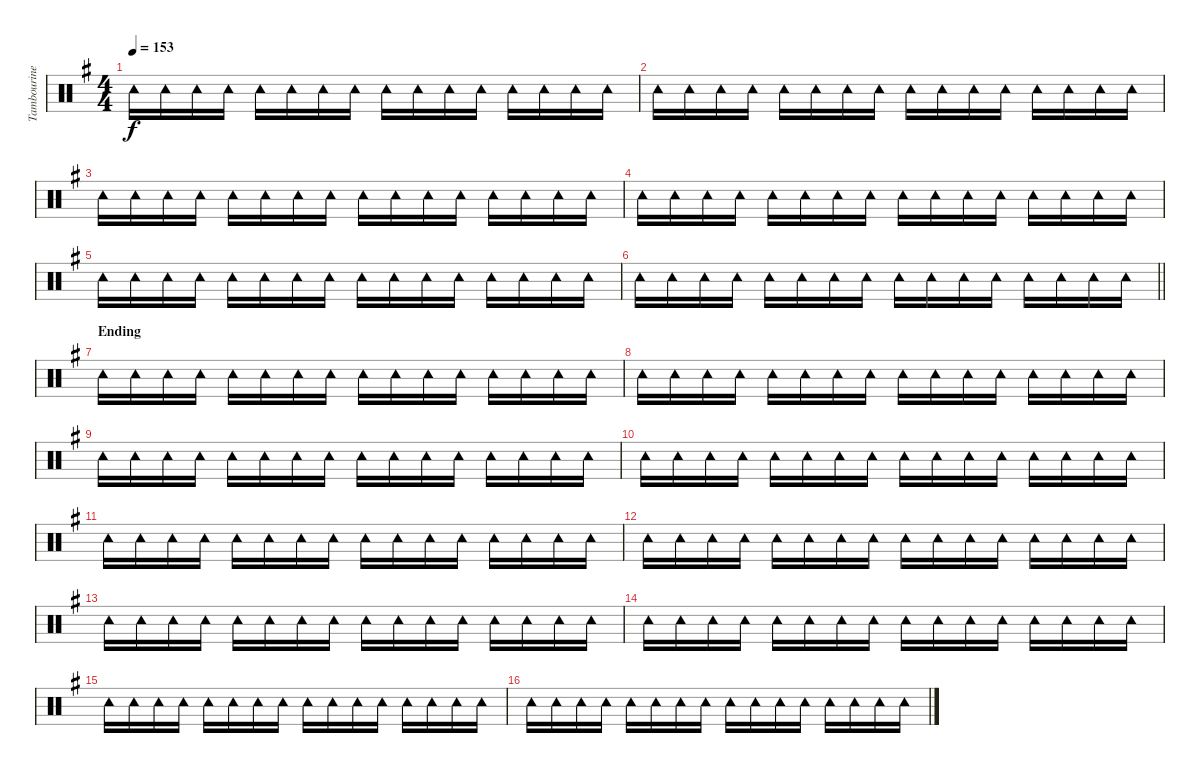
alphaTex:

\track ("Tambourine" "Tambourine") {instrument percussion}
\staff {score}
\articulation defaults
\ts (4 4)
\tempo 153
\clef neutral
\ks g "Tambourine (hit)".16{dy f} "Tambourine (hit)".16 "Tambourine (hit)".16 "Tambourine (hit)".16 "Tambourine (hit)".16 "Tambourine (hit)".16 "Tambourine (hit)".16 "Tambourine (hit)".16 "Tambourine (hit)".16 "Tambourine (hit)".16 "Tambourine (hit)".16 "Tambourine (hit)".16 "Tambourine (hit)".16 "Tambourine (hit)".16 "Tambourine (hit)".16 "Tambourine (hit)".16
|
"Tambourine (hit)".16 "Tambourine (hit)".16 "Tambourine (hit)".16 "Tambourine (hit)".16 "Tambourine (hit)".16 "Tambourine (hit)".16 "Tambourine (hit)".16 "Tambourine (hit)".16 "Tambourine (hit)".16 "Tambourine (hit)".16 "Tambourine (hit)".16 "Tambourine (hit)".16 "Tambourine (hit)".16 "Tambourine (hit)".16 "Tambourine (hit)".16 "Tambourine (hit)".16 |
"Tambourine (hit)".16 "Tambourine (hit)".16 "Tambourine (hit)".16 "Tambourine (hit)".16 "Tambourine (hit)".16 "Tambourine (hit)".16 "Tambourine (hit)".16 "Tambourine (hit)".16 "Tambourine (hit)".16 "Tambourine (hit)".16 "Tambourine (hit)".16 "Tambourine (hit)".16 "Tambourine (hit)".16 "Tambourine (hit)".16 "Tambourine (hit)".16 "Tambourine (hit)".16 |
"Tambourine (hit)".16 "Tambourine (hit)".16 "Tambourine (hit)".16 "Tambourine (hit)".16 "Tambourine (hit)".16 "Tambourine (hit)".16 "Tambourine (hit)".16 "Tambourine (hit)".16 "Tambourine (hit)".16 "Tambourine (hit)".16 "Tambourine (hit)".16 "Tambourine (hit)".16 "Tambourine (hit)".16 "Tambourine (hit)".16 "Tambourine (hit)".16 "Tambourine (hit)".16 |
"Tambourine (hit)".16 "Tambourine (hit)".16 "Tambourine (hit)".16 "Tambourine (hit)".16 "Tambourine (hit)".16 "Tambourine (hit)".16 "Tambourine (hit)".16 "Tambourine (hit)".16 "Tambourine (hit)".16 "Tambourine (hit)".16 "Tambourine (hit)".16 "Tambourine (hit)".16 "Tambourine (hit)".16 "Tambourine (hit)".16 "Tambourine (hit)".16 "Tambourine (hit)".16 |
\barLineRight lightlight "Tambourine (hit)".16 "Tambourine (hit)".16 "Tambourine (hit)".16 "Tambourine (hit)".16 "Tambourine (hit)".16 "Tambourine (hit)".16 "Tambourine (hit)".16 "Tambourine (hit)".16 "Tambourine (hit)".16 "Tambourine (hit)".16 "Tambourine (hit)".16 "Tambourine (hit)".16 "Tambourine (hit)".16 "Tambourine (hit)".16 "Tambourine (hit)".16 "Tambourine (hit)".16
|
\section ("" "Ending")
"Tambourine (hit)".16 "Tambourine (hit)".16 "Tambourine (hit)".16 "Tambourine (hit)".16 "Tambourine (hit)".16 "Tambourine (hit)".16 "Tambourine (hit)".16 "Tambourine (hit)".16 "Tambourine (hit)".16 "Tambourine (hit)".16 "Tambourine (hit)".16 "Tambourine (hit)".16 "Tambourine (hit)".16 "Tambourine (hit)".16 "Tambourine (hit)".16 "Tambourine (hit)".16 |
"Tambourine (hit)".16 "Tambourine (hit)".16 "Tambourine (hit)".16 "Tambourine (hit)".16 "Tambourine (hit)".16 "Tambourine (hit)".16 "Tambourine (hit)".16 "Tambourine (hit)".16 "Tambourine (hit)".16 "Tambourine (hit)".16 "Tambourine (hit)".16 "Tambourine (hit)".16 "Tambourine (hit)".16 "Tambourine (hit)".16 "Tambourine (hit)".16 "Tambourine (hit)".16 |
"Tambourine (hit)".16 "Tambourine (hit)".16 "Tambourine (hit)".16 "Tambourine (hit)".16 "Tambourine (hit)".16 "Tambourine (hit)".16 "Tambourine (hit)".16 "Tambourine (hit)".16 "Tambourine (hit)".16 "Tambourine (hit)".16 "Tambourine (hit)".16 "Tambourine (hit)".16 "Tambourine (hit)".16 "Tambourine (hit)".16 "Tambourine (hit)".16 "Tambourine (hit)".16 |
"Tambourine (hit)".16 "Tambourine (hit)".16 "Tambourine (hit)".16 "Tambourine (hit)".16 "Tambourine (hit)".16 "Tambourine (hit)".16 "Tambourine (hit)".16 "Tambourine (hit)".16 "Tambourine (hit)".16 "Tambourine (hit)".16 "Tambourine (hit)".16 "Tambourine (hit)".16 "Tambourine (hit)".16 "Tambourine (hit)".16 "Tambourine (hit)".16 "Tambourine (hit)".16 |
"Tambourine (hit)".16 "Tambourine (hit)".16 "Tambourine (hit)".16 "Tambourine (hit)".16 "Tambourine (hit)".16 "Tambourine (hit)".16 "Tambourine (hit)".16 "Tambourine (hit)".16 "Tambourine (hit)".16 "Tambourine (hit)".16 "Tambourine (hit)".16 "Tambourine (hit)".16 "Tambourine (hit)".16 "Tambourine (hit)".16 "Tambourine (hit)".16 "Tambourine (hit)".16 |
"Tambourine (hit)".16 "Tambourine (hit)".16 "Tambourine (hit)".16 "Tambourine (hit)".16 "Tambourine (hit)".16 "Tambourine (hit)".16 "Tambourine (hit)".16 "Tambourine (hit)".16 "Tambourine (hit)".16 "Tambourine (hit)".16 "Tambourine (hit)".16 "Tambourine (hit)".16 "Tambourine (hit)".16 "Tambourine (hit)".16 "Tambourine (hit)".16 "Tambourine (hit)".16 |
"Tambourine (hit)".16 "Tambourine (hit)".16 "Tambourine (hit)".16 "Tambourine (hit)".16 "Tambourine (hit)".16 "Tambourine (hit)".16 "Tambourine (hit)".16 "Tambourine (hit)".16 "Tambourine (hit)".16 "Tambourine (hit)".16 "Tambourine (hit)".16 "Tambourine (hit)".16 "Tambourine (hit)".16 "Tambourine (hit)".16 "Tambourine (hit)".16 "Tambourine (hit)".16 |
"Tambourine (hit)".16 "Tambourine (hit)".16 "Tambourine (hit)".16 "Tambourine (hit)".16 "Tambourine (hit)".16 "Tambourine (hit)".16 "Tambourine (hit)".16 "Tambourine (hit)".16 "Tambourine (hit)".16 "Tambourine (hit)".16 "Tambourine (hit)".16 "Tambourine (hit)".16 "Tambourine (hit)".16 "Tambourine (hit)".16 "Tambourine (hit)".16 "Tambourine (hit)".16 |
"Tambourine (hit)".16 "Tambourine (hit)".16 "Tambourine (hit)".16 "Tambourine (hit)".16 "Tambourine (hit)".16 "Tambourine (hit)".16 "Tambourine (hit)".16 "Tambourine (hit)".16 "Tambourine (hit)".16 "Tambourine (hit)".16 "Tambourine (hit)".16 "Tambourine (hit)".16 "Tambourine (hit)".16 "Tambourine (hit)".16 "Tambourine (hit)".16 "Tambourine (hit)".16 |
"Tambourine (hit)".16 "Tambourine (hit)".16 "Tambourine (hit)".16 "Tambourine (hit)".16 "Tambourine (hit)".16 "Tambourine (hit)".16 "Tambourine (hit)".16 "Tambourine (hit)".16 "Tambourine (hit)".16 "Tambourine (hit)".16 "Tambourine (hit)".16 "Tambourine (hit)".16 "Tambourine (hit)".16 "Tambourine (hit)".16 "Tambourine (hit)".16 "Tambourine (hit)".16
